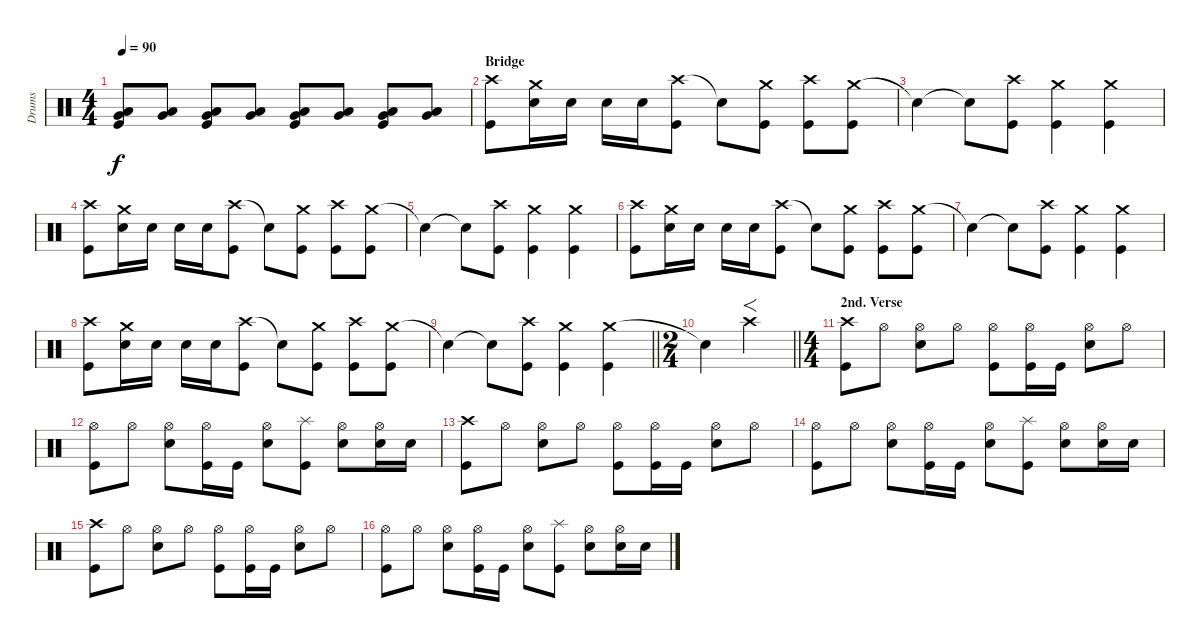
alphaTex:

\track ("Drums" "Drums") {instrument percussion}
\staff {score}
\articulation defaults
\ts (4 4)
\tempo 90
\clef neutral
\ks c
("Low Tom (hit)" "Very Low Tom (hit)" "Kick (hit)").8{dy f} ("Low Tom (hit)" "Very Low Tom (hit)").8 ("Low Tom (hit)" "Very Low Tom (hit)" "Kick (hit)").8 ("Low Tom (hit)" "Very Low Tom (hit)").8 ("Low Tom (hit)" "Very Low Tom (hit)" "Kick (hit)").8 ("Low Tom (hit)" "Very Low Tom (hit)").8 ("Low Tom (hit)" "Very Low Tom (hit)" "Kick (hit)").8 ("Low Tom (hit)" "Very Low Tom (hit)").8 |
\section ("" "Bridge")
("Crash high (hit)" "Kick (hit)").8 ("Crash medium (hit)" "Electric Snare (hit)").16 "Electric Snare (hit)".16 "Electric Snare (hit)".16 "Electric Snare (hit)".16 ("Crash high (hit)" "Kick (hit)").8 "Snare (hit)"{t}.8 ("Crash medium (hit)" "Kick (hit)").8 ("Crash high (hit)" "Kick (hit)").8 ("Crash medium (hit)" "Kick (hit)").8 |
"Snare (hit)"{t}.4 "Snare (hit)"{t}.8 ("Crash high (hit)" "Kick (hit)").8 ("Crash medium (hit)" "Kick (hit)").4 ("Crash medium (hit)" "Kick (hit)").4 |
("Crash high (hit)" "Kick (hit)").8 ("Crash medium (hit)" "Electric Snare (hit)").16 "Electric Snare (hit)".16 "Electric Snare (hit)".16 "Electric Snare (hit)".16 ("Crash high (hit)" "Kick (hit)").8 "Snare (hit)"{t}.8 ("Crash medium (hit)" "Kick (hit)").8 ("Crash high (hit)" "Kick (hit)").8 ("Crash medium (hit)" "Kick (hit)").8 |
"Snare (hit)"{t}.4 "Snare (hit)"{t}.8 ("Crash high (hit)" "Kick (hit)").8 ("Crash medium (hit)" "Kick (hit)").4 ("Crash medium (hit)" "Kick (hit)").4 |
("Crash high (hit)" "Kick (hit)").8 ("Crash medium (hit)" "Electric Snare (hit)").16 "Electric Snare (hit)".16 "Electric Snare (hit)".16 "Electric Snare (hit)".16 ("Crash high (hit)" "Kick (hit)").8 "Snare (hit)"{t}.8 ("Crash medium (hit)" "Kick (hit)").8 ("Crash high (hit)" "Kick (hit)").8 ("Crash medium (hit)" "Kick (hit)").8 |
"Snare (hit)"{t}.4 "Snare (hit)"{t}.8 ("Crash high (hit)" "Kick (hit)").8 ("Crash medium (hit)" "Kick (hit)").4 ("Crash medium (hit)" "Kick (hit)").4 |
("Crash high (hit)" "Kick (hit)").8 ("Crash medium (hit)" "Electric Snare (hit)").16 "Electric Snare (hit)".16 "Electric Snare (hit)".16 "Electric Snare (hit)".16 ("Crash high (hit)" "Kick (hit)").8 "Snare (hit)"{t}.8 ("Crash medium (hit)" "Kick (hit)").8 ("Crash high (hit)" "Kick (hit)").8 ("Crash medium (hit)" "Kick (hit)").8 |
\barLineRight lightlight "Snare (hit)"{t}.4 "Snare (hit)"{t}.8
("Crash high (hit)" "Kick (hit)").8 ("Crash medium (hit)" "Kick (hit)").4 ("Crash medium (hit)" "Kick (hit)").4 |
\ts (2 4)
\barLineRight lightlight "Snare (hit)"{t}.4 "Crash high (hit)".4{f}
|
\ts (4 4)
\section ("" "2nd. Verse")
("Crash high (hit)" "Kick (hit)").8 "Hi-Hat (open)".8 ("Hi-Hat (open)" "Electric Snare (hit)").8 "Hi-Hat (open)".8 ("Hi-Hat (open)" "Kick (hit)").8 ("Hi-Hat (open)" "Kick (hit)").16 "Kick (hit)".16 ("Hi-Hat (open)" "Electric Snare (hit)").8 "Hi-Hat (open)".8 |
("Hi-Hat (open)" "Kick (hit)").8 "Hi-Hat (open)".8 ("Hi-Hat (open)" "Electric Snare (hit)").8 ("Hi-Hat (open)" "Kick (hit)").16 "Kick (hit)".16 ("Hi-Hat (open)" "Electric Snare (hit)").8 ("Splash (hit)" "Kick (hit)").8 ("Hi-Hat (open)" "Electric Snare (hit)").8 ("Hi-Hat (open)" "Electric Snare (hit)").16 "Electric Snare (hit)".16 |
("Crash high (hit)" "Kick (hit)").8 "Hi-Hat (open)".8 ("Hi-Hat (open)" "Electric Snare (hit)").8 "Hi-Hat (open)".8 ("Hi-Hat (open)" "Kick (hit)").8 ("Hi-Hat (open)" "Kick (hit)").16 "Kick (hit)".16 ("Hi-Hat (open)" "Electric Snare (hit)").8 "Hi-Hat (open)".8 |
("Hi-Hat (open)" "Kick (hit)").8 "Hi-Hat (open)".8 ("Hi-Hat (open)" "Electric Snare (hit)").8 ("Hi-Hat (open)" "Kick (hit)").16 "Kick (hit)".16 ("Hi-Hat (open)" "Electric Snare (hit)").8 ("Splash (hit)" "Kick (hit)").8 ("Hi-Hat (open)" "Electric Snare (hit)").8 ("Hi-Hat (open)" "Electric Snare (hit)").16 "Electric Snare (hit)".16 |
("Crash high (hit)" "Kick (hit)").8 "Hi-Hat (open)".8 ("Hi-Hat (open)" "Electric Snare (hit)").8 "Hi-Hat (open)".8 ("Hi-Hat (open)" "Kick (hit)").8 ("Hi-Hat (open)" "Kick (hit)").16 "Kick (hit)".16 ("Hi-Hat (open)" "Electric Snare (hit)").8 "Hi-Hat (open)".8 |
("Hi-Hat (open)" "Kick (hit)").8 "Hi-Hat (open)".8 ("Hi-Hat (open)" "Electric Snare (hit)").8 ("Hi-Hat (open)" "Kick (hit)").16 "Kick (hit)".16 ("Hi-Hat (open)" "Electric Snare (hit)").8 ("Splash (hit)" "Kick (hit)").8 ("Hi-Hat (open)" "Electric Snare (hit)").8 ("Hi-Hat (open)" "Electric Snare (hit)").16 "Electric Snare (hit)".16
